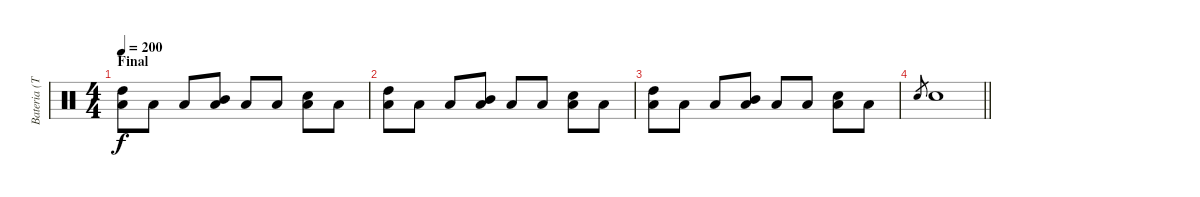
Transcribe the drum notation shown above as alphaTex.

\track ("Bateria (Tré)" "Bateria (T") {instrument percussion}
\staff {score}
\articulation defaults
\ts (4 4)
\section ("" "Final")
\tempo 200
\clef neutral
\ks c
("Low Floor Tom (hit)" "High Tom (hit)").8{dy f} "Low Floor Tom (hit)".8 "Low Floor Tom (hit)".8 ("Low Floor Tom (hit)" "Mid Tom (hit)").8 "Low Floor Tom (hit)".8 "Low Floor Tom (hit)".8 ("Low Floor Tom (hit)" "Electric Snare (hit)").8 "Low Floor Tom (hit)".8 |
("Low Floor Tom (hit)" "High Tom (hit)").8 "Low Floor Tom (hit)".8 "Low Floor Tom (hit)".8 ("Low Floor Tom (hit)" "Mid Tom (hit)").8 "Low Floor Tom (hit)".8 "Low Floor Tom (hit)".8 ("Low Floor Tom (hit)" "Electric Snare (hit)").8 "Low Floor Tom (hit)".8 |
("Low Floor Tom (hit)" "High Tom (hit)").8 "Low Floor Tom (hit)".8 "Low Floor Tom (hit)".8 ("Low Floor Tom (hit)" "Mid Tom (hit)").8 "Low Floor Tom (hit)".8 "Low Floor Tom (hit)".8 ("Low Floor Tom (hit)" "Electric Snare (hit)").8 "Low Floor Tom (hit)".8 |
\barLineRight lightlight "Electric Snare (hit)".8{gr} "Electric Snare (hit)".1
